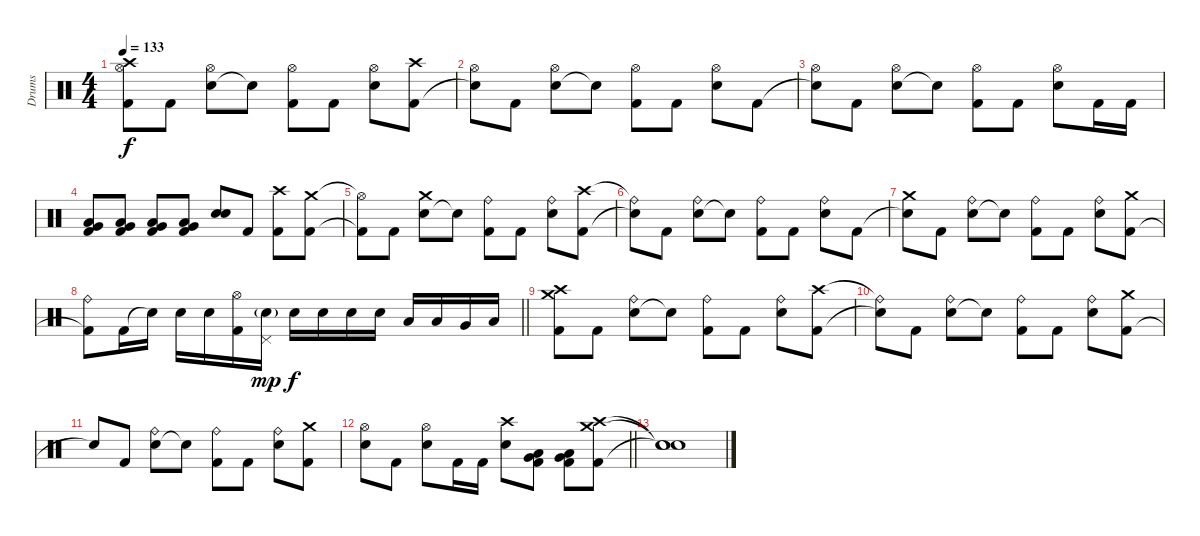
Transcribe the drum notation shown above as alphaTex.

\track ("Drums" "Drums") {instrument percussion}
\staff {score}
\articulation defaults
\ts (4 4)
\tempo 133
\clef neutral
\ks c
("Kick (hit) 2"{t} "Hi-Hat (open)"{t} "Crash high (hit)"{t}).8{dy f} "Kick (hit) 2".8 ("Electric Snare (hit)" "Hi-Hat (open)").8 "Snare (hit)"{t}.8 ("Kick (hit) 2" "Hi-Hat (open)").8 "Kick (hit) 2".8 ("Electric Snare (hit)" "Hi-Hat (open)").8 ("Kick (hit) 2" "Crash high (hit)").8 |
("Snare (hit)"{t} "Hi-Hat (open)").8 "Kick (hit) 2".8 ("Electric Snare (hit)" "Hi-Hat (open)").8 "Snare (hit)"{t}.8 ("Kick (hit) 2" "Hi-Hat (open)").8 "Kick (hit) 2".8 ("Electric Snare (hit)" "Hi-Hat (open)").8 "Kick (hit) 2".8 |
("Snare (hit)"{t} "Hi-Hat (open)").8 "Kick (hit) 2".8 ("Electric Snare (hit)" "Hi-Hat (open)").8 "Snare (hit)"{t}.8 ("Kick (hit) 2" "Hi-Hat (open)").8 "Kick (hit) 2".8 ("Electric Snare (hit)" "Hi-Hat (open)").8 "Kick (hit) 2".16 "Kick (hit) 2".16 |
("Very Low Tom (hit)" "Low Tom (hit)" "Kick (hit) 2").8 ("Very Low Tom (hit)" "Low Tom (hit)" "Kick (hit) 2").8 ("Very Low Tom (hit)" "Low Tom (hit)" "Kick (hit) 2").8 ("Very Low Tom (hit)" "Low Tom (hit)" "Kick (hit) 2").8 ("Electric Snare (hit)" "Electric Snare (hit)").8 "Kick (hit) 2".8 ("Kick (hit) 2" "Crash high (hit)").8 ("Kick (hit) 2" "Crash medium (hit)").8 |
("Kick (hit) 2"{t} "Hi-Hat (open)"{t}).8 "Kick (hit) 2".8 ("Electric Snare (hit)" "Crash medium (hit)").8 "Snare (hit)"{t}.8 ("Kick (hit) 2" "Ride (bell)").8 "Kick (hit) 2".8 ("Electric Snare (hit)" "Ride (bell)").8 ("Kick (hit) 2" "Crash high (hit)").8 |
("Snare (hit)"{t} "Ride (bell)"{t}).8 "Kick (hit) 2".8 ("Electric Snare (hit)" "Ride (bell)").8 "Snare (hit)"{t}.8 ("Kick (hit) 2" "Ride (bell)").8 "Kick (hit) 2".8 ("Electric Snare (hit)" "Ride (bell)").8 "Kick (hit) 2".8 |
("Snare (hit)"{t} "Crash medium (hit)").8 "Kick (hit) 2".8 ("Electric Snare (hit)" "Ride (bell)").8 "Snare (hit)"{t}.8 ("Kick (hit) 2" "Ride (bell)").8 "Kick (hit) 2".8 ("Electric Snare (hit)" "Ride (bell)").8 ("Kick (hit) 2" "Crash medium (hit)").8 |
\barLineRight lightlight
("Kick (hit) 2"{t} "Ride (bell)").8 "Kick (hit) 2".16 "Electric Snare (hit)"{t}.16 "Electric Snare (hit)".16 "Electric Snare (hit)".16 ("Kick (hit) 2" "Hi-Hat (open)").16 ("Electric Snare (hit)"{g} "Pedal Hi-Hat (hit)").16{dy mp} "Electric Snare (hit)".16{dy f} "Electric Snare (hit)".16 "Electric Snare (hit)".16 "Electric Snare (hit)".16 "Low Tom (hit)".16 "Low Tom (hit)".16 "Very Low Tom (hit)".16 "Low Floor Tom (hit)".16 |
("Kick (hit) 2" "Crash medium (hit)" "Crash high (hit)").8 "Kick (hit) 2".8 ("Electric Snare (hit)" "Ride (bell)").8 "Snare (hit)"{t}.8 ("Kick (hit) 2" "Ride (bell)").8 "Kick (hit) 2".8 ("Electric Snare (hit)" "Ride (bell)").8 ("Kick (hit) 2" "Crash high (hit)").8 |
("Snare (hit)"{t} "Ride (bell)"{t}).8 "Kick (hit) 2".8 ("Electric Snare (hit)" "Ride (bell)").8 "Snare (hit)"{t}.8 ("Kick (hit) 2" "Ride (bell)").8 "Kick (hit) 2".8 ("Electric Snare (hit)" "Ride (bell)").8 ("Kick (hit) 2" "Crash medium (hit)").8 |
"Snare (hit)"{t}.8 "Kick (hit) 2".8 ("Electric Snare (hit)" "Ride (bell)").8 "Snare (hit)"{t}.8 ("Kick (hit) 2" "Ride (bell)").8 "Kick (hit) 2".8 ("Electric Snare (hit)" "Ride (bell)").8 ("Kick (hit) 2" "Crash medium (hit)").8 |
\barLineRight lightlight
("Electric Snare (hit)" "Hi-Hat (open)").8 "Kick (hit) 2".8 ("Electric Snare (hit)" "Hi-Hat (open)").8 "Kick (hit) 2".16 "Kick (hit) 2".16 ("Electric Snare (hit)" "Crash high (hit)").8 ("Very Low Tom (hit)" "Kick (hit) 2" "Low Tom (hit)").8 ("Very Low Tom (hit)" "Kick (hit) 2" "Low Tom (hit)").8 ("Kick (hit) 2" "Crash medium (hit)" "Crash high (hit)").8 |
("Snare (hit)"{t} "Snare (hit)"{t} "Snare (hit)"{t}).1
